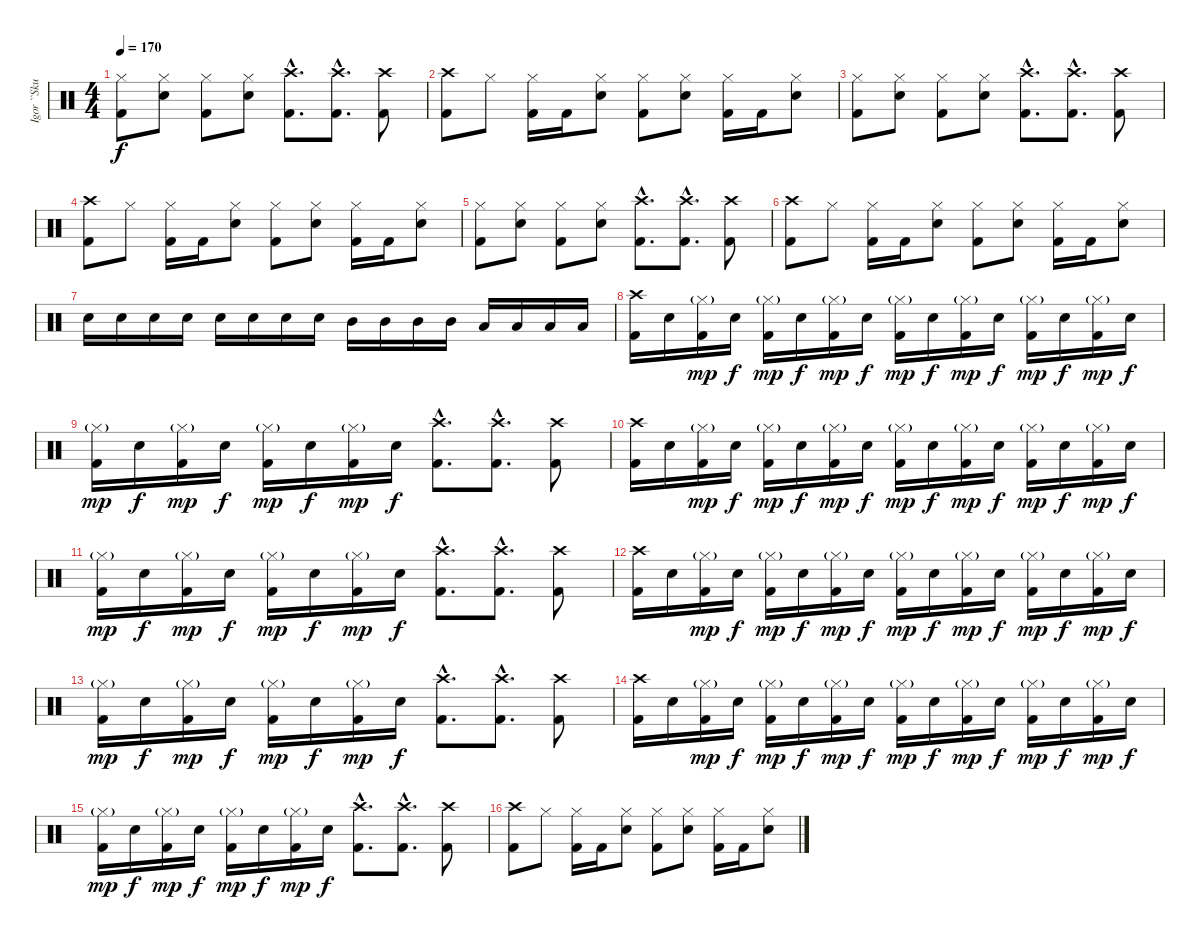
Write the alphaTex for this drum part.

\track ("Igor ``Skullcrusher`` Cavalera" "Igor ``Sku") {instrument percussion}
\staff {score}
\articulation defaults
\ts (4 4)
\tempo 170
\clef neutral
\ks c
("Hi-Hat (closed)" "Kick (hit) 2").8{dy f} ("Hi-Hat (closed)" "Electric Snare (hit)").8 ("Hi-Hat (closed)" "Kick (hit) 2").8 ("Hi-Hat (closed)" "Electric Snare (hit)").8 ("Crash high (hit)"{hac} "Kick (hit) 2"{hac}).8{d} ("Crash high (hit)"{hac} "Kick (hit) 2"{hac}).8{d} ("Crash high (hit)" "Kick (hit) 2").8 |
("Crash high (hit)" "Kick (hit) 2").8 "Hi-Hat (closed)".8 ("Hi-Hat (closed)" "Kick (hit) 2").16 "Kick (hit) 2".16 ("Hi-Hat (closed)" "Electric Snare (hit)").8 ("Hi-Hat (closed)" "Kick (hit) 2").8 ("Hi-Hat (closed)" "Electric Snare (hit)").8 ("Hi-Hat (closed)" "Kick (hit) 2").16 "Kick (hit) 2".16 ("Hi-Hat (closed)" "Electric Snare (hit)").8 |
("Hi-Hat (closed)" "Kick (hit) 2").8 ("Hi-Hat (closed)" "Electric Snare (hit)").8 ("Hi-Hat (closed)" "Kick (hit) 2").8 ("Hi-Hat (closed)" "Electric Snare (hit)").8 ("Crash high (hit)"{hac} "Kick (hit) 2"{hac}).8{d} ("Crash high (hit)"{hac} "Kick (hit) 2"{hac}).8{d} ("Crash high (hit)" "Kick (hit) 2").8 |
("Crash high (hit)" "Kick (hit) 2").8 "Hi-Hat (closed)".8 ("Hi-Hat (closed)" "Kick (hit) 2").16 "Kick (hit) 2".16 ("Hi-Hat (closed)" "Electric Snare (hit)").8 ("Hi-Hat (closed)" "Kick (hit) 2").8 ("Hi-Hat (closed)" "Electric Snare (hit)").8 ("Hi-Hat (closed)" "Kick (hit) 2").16 "Kick (hit) 2".16 ("Hi-Hat (closed)" "Electric Snare (hit)").8 |
("Hi-Hat (closed)" "Kick (hit) 2").8 ("Hi-Hat (closed)" "Electric Snare (hit)").8 ("Hi-Hat (closed)" "Kick (hit) 2").8 ("Hi-Hat (closed)" "Electric Snare (hit)").8 ("Crash high (hit)"{hac} "Kick (hit) 2"{hac}).8{d} ("Crash high (hit)"{hac} "Kick (hit) 2"{hac}).8{d} ("Crash high (hit)" "Kick (hit) 2").8 |
("Crash high (hit)" "Kick (hit) 2").8 "Hi-Hat (closed)".8 ("Hi-Hat (closed)" "Kick (hit) 2").16 "Kick (hit) 2".16 ("Hi-Hat (closed)" "Electric Snare (hit)").8 ("Hi-Hat (closed)" "Kick (hit) 2").8 ("Hi-Hat (closed)" "Electric Snare (hit)").8 ("Hi-Hat (closed)" "Kick (hit) 2").16 "Kick (hit) 2".16 ("Hi-Hat (closed)" "Electric Snare (hit)").8 |
"Electric Snare (hit)".16 "Electric Snare (hit)".16 "Electric Snare (hit)".16 "Electric Snare (hit)".16 "Electric Snare (hit)".16 "Electric Snare (hit)".16 "Electric Snare (hit)".16 "Electric Snare (hit)".16 "Mid Tom (hit)".16 "Mid Tom (hit)".16 "Mid Tom (hit)".16 "Mid Tom (hit)".16 "Low Tom (hit)".16 "Low Tom (hit)".16 "Low Tom (hit)".16 "Low Tom (hit)".16 |
("Crash high (hit)" "Kick (hit) 2").16 "Electric Snare (hit)".16 ("Hi-Hat (closed)"{g} "Kick (hit) 2").16{dy mp} "Electric Snare (hit)".16{dy f} ("Hi-Hat (closed)"{g} "Kick (hit) 2").16{dy mp} "Electric Snare (hit)".16{dy f} ("Hi-Hat (closed)"{g} "Kick (hit) 2").16{dy mp} "Electric Snare (hit)".16{dy f} ("Hi-Hat (closed)"{g} "Kick (hit) 2").16{dy mp} "Electric Snare (hit)".16{dy f} ("Hi-Hat (closed)"{g} "Kick (hit) 2").16{dy mp} "Electric Snare (hit)".16{dy f} ("Hi-Hat (closed)"{g} "Kick (hit) 2").16{dy mp} "Electric Snare (hit)".16{dy f} ("Hi-Hat (closed)"{g} "Kick (hit) 2").16{dy mp} "Electric Snare (hit)".16{dy f} |
("Hi-Hat (closed)"{g} "Kick (hit) 2").16{dy mp} "Electric Snare (hit)".16{dy f} ("Hi-Hat (closed)"{g} "Kick (hit) 2").16{dy mp} "Electric Snare (hit)".16{dy f} ("Hi-Hat (closed)"{g} "Kick (hit) 2").16{dy mp} "Electric Snare (hit)".16{dy f} ("Hi-Hat (closed)"{g} "Kick (hit) 2").16{dy mp} "Electric Snare (hit)".16{dy f} ("Crash high (hit)"{hac} "Kick (hit) 2"{hac}).8{d} ("Crash high (hit)"{hac} "Kick (hit) 2"{hac}).8{d} ("Crash high (hit)" "Kick (hit) 2").8 |
("Crash high (hit)" "Kick (hit) 2").16 "Electric Snare (hit)".16 ("Hi-Hat (closed)"{g} "Kick (hit) 2").16{dy mp} "Electric Snare (hit)".16{dy f} ("Hi-Hat (closed)"{g} "Kick (hit) 2").16{dy mp} "Electric Snare (hit)".16{dy f} ("Hi-Hat (closed)"{g} "Kick (hit) 2").16{dy mp} "Electric Snare (hit)".16{dy f} ("Hi-Hat (closed)"{g} "Kick (hit) 2").16{dy mp} "Electric Snare (hit)".16{dy f} ("Hi-Hat (closed)"{g} "Kick (hit) 2").16{dy mp} "Electric Snare (hit)".16{dy f} ("Hi-Hat (closed)"{g} "Kick (hit) 2").16{dy mp} "Electric Snare (hit)".16{dy f} ("Hi-Hat (closed)"{g} "Kick (hit) 2").16{dy mp} "Electric Snare (hit)".16{dy f} |
("Hi-Hat (closed)"{g} "Kick (hit) 2").16{dy mp} "Electric Snare (hit)".16{dy f} ("Hi-Hat (closed)"{g} "Kick (hit) 2").16{dy mp} "Electric Snare (hit)".16{dy f} ("Hi-Hat (closed)"{g} "Kick (hit) 2").16{dy mp} "Electric Snare (hit)".16{dy f} ("Hi-Hat (closed)"{g} "Kick (hit) 2").16{dy mp} "Electric Snare (hit)".16{dy f} ("Crash high (hit)"{hac} "Kick (hit) 2"{hac}).8{d} ("Crash high (hit)"{hac} "Kick (hit) 2"{hac}).8{d} ("Crash high (hit)" "Kick (hit) 2").8 |
("Crash high (hit)" "Kick (hit) 2").16 "Electric Snare (hit)".16 ("Hi-Hat (closed)"{g} "Kick (hit) 2").16{dy mp} "Electric Snare (hit)".16{dy f} ("Hi-Hat (closed)"{g} "Kick (hit) 2").16{dy mp} "Electric Snare (hit)".16{dy f} ("Hi-Hat (closed)"{g} "Kick (hit) 2").16{dy mp} "Electric Snare (hit)".16{dy f} ("Hi-Hat (closed)"{g} "Kick (hit) 2").16{dy mp} "Electric Snare (hit)".16{dy f} ("Hi-Hat (closed)"{g} "Kick (hit) 2").16{dy mp} "Electric Snare (hit)".16{dy f} ("Hi-Hat (closed)"{g} "Kick (hit) 2").16{dy mp} "Electric Snare (hit)".16{dy f} ("Hi-Hat (closed)"{g} "Kick (hit) 2").16{dy mp} "Electric Snare (hit)".16{dy f} |
("Hi-Hat (closed)"{g} "Kick (hit) 2").16{dy mp} "Electric Snare (hit)".16{dy f} ("Hi-Hat (closed)"{g} "Kick (hit) 2").16{dy mp} "Electric Snare (hit)".16{dy f} ("Hi-Hat (closed)"{g} "Kick (hit) 2").16{dy mp} "Electric Snare (hit)".16{dy f} ("Hi-Hat (closed)"{g} "Kick (hit) 2").16{dy mp} "Electric Snare (hit)".16{dy f} ("Crash high (hit)"{hac} "Kick (hit) 2"{hac}).8{d} ("Crash high (hit)"{hac} "Kick (hit) 2"{hac}).8{d} ("Crash high (hit)" "Kick (hit) 2").8 |
("Crash high (hit)" "Kick (hit) 2").16 "Electric Snare (hit)".16 ("Hi-Hat (closed)"{g} "Kick (hit) 2").16{dy mp} "Electric Snare (hit)".16{dy f} ("Hi-Hat (closed)"{g} "Kick (hit) 2").16{dy mp} "Electric Snare (hit)".16{dy f} ("Hi-Hat (closed)"{g} "Kick (hit) 2").16{dy mp} "Electric Snare (hit)".16{dy f} ("Hi-Hat (closed)"{g} "Kick (hit) 2").16{dy mp} "Electric Snare (hit)".16{dy f} ("Hi-Hat (closed)"{g} "Kick (hit) 2").16{dy mp} "Electric Snare (hit)".16{dy f} ("Hi-Hat (closed)"{g} "Kick (hit) 2").16{dy mp} "Electric Snare (hit)".16{dy f} ("Hi-Hat (closed)"{g} "Kick (hit) 2").16{dy mp} "Electric Snare (hit)".16{dy f} |
("Hi-Hat (closed)"{g} "Kick (hit) 2").16{dy mp} "Electric Snare (hit)".16{dy f} ("Hi-Hat (closed)"{g} "Kick (hit) 2").16{dy mp} "Electric Snare (hit)".16{dy f} ("Hi-Hat (closed)"{g} "Kick (hit) 2").16{dy mp} "Electric Snare (hit)".16{dy f} ("Hi-Hat (closed)"{g} "Kick (hit) 2").16{dy mp} "Electric Snare (hit)".16{dy f} ("Crash high (hit)"{hac} "Kick (hit) 2"{hac}).8{d} ("Crash high (hit)"{hac} "Kick (hit) 2"{hac}).8{d} ("Crash high (hit)" "Kick (hit) 2").8 |
("Crash high (hit)" "Kick (hit) 2").8 "Hi-Hat (closed)".8 ("Hi-Hat (closed)" "Kick (hit) 2").16 "Kick (hit) 2".16 ("Hi-Hat (closed)" "Electric Snare (hit)").8 ("Hi-Hat (closed)" "Kick (hit) 2").8 ("Hi-Hat (closed)" "Electric Snare (hit)").8 ("Hi-Hat (closed)" "Kick (hit) 2").16 "Kick (hit) 2".16 ("Hi-Hat (closed)" "Electric Snare (hit)").8
